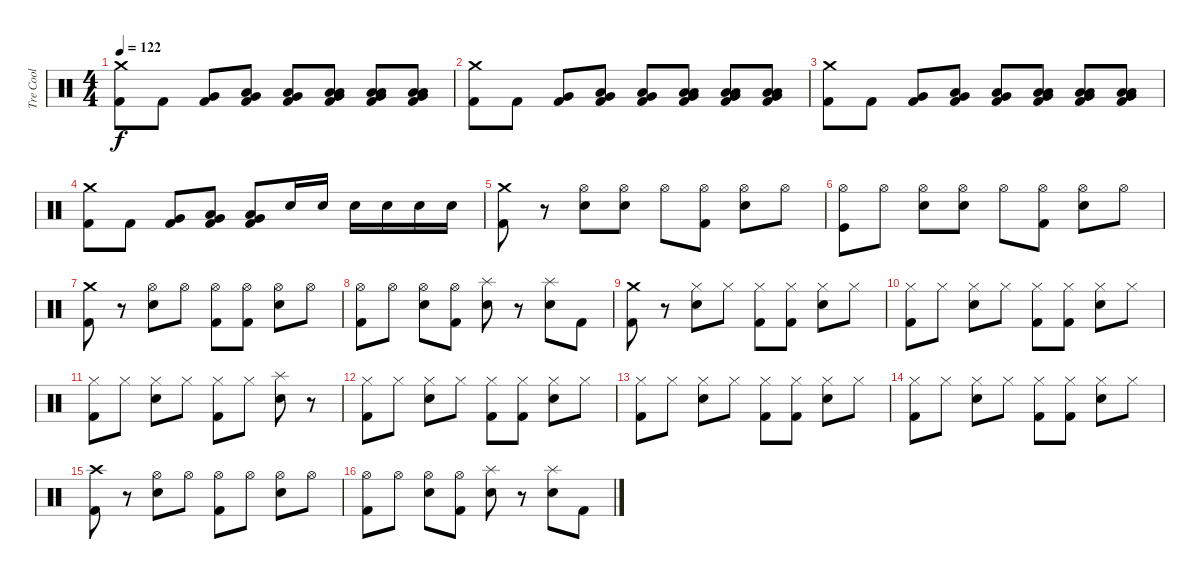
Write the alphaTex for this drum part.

\track ("Tre Cool" "Tre Cool") {instrument percussion}
\staff {score}
\articulation defaults
\ts (4 4)
\tempo 122
\clef neutral
\ks c
("Crash medium (hit)" "Kick (hit) 2").8{dy f} "Kick (hit) 2".8 ("Very Low Tom (hit)" "Kick (hit) 2").8 ("Low Tom (hit)" "Very Low Tom (hit)" "Kick (hit) 2").8 ("Low Tom (hit)" "Very Low Tom (hit)" "Kick (hit) 2").8 ("Low Floor Tom (hit)" "Very Low Tom (hit)" "Low Tom (hit)" "Kick (hit) 2").8 ("Low Floor Tom (hit)" "Very Low Tom (hit)" "Low Tom (hit)" "Kick (hit) 2").8 ("Low Floor Tom (hit)" "Very Low Tom (hit)" "Low Tom (hit)" "Kick (hit) 2").8 |
("Crash medium (hit)" "Kick (hit) 2").8 "Kick (hit) 2".8 ("Very Low Tom (hit)" "Kick (hit) 2").8 ("Low Tom (hit)" "Very Low Tom (hit)" "Kick (hit) 2").8 ("Low Tom (hit)" "Very Low Tom (hit)" "Kick (hit) 2").8 ("Low Floor Tom (hit)" "Very Low Tom (hit)" "Low Tom (hit)" "Kick (hit) 2").8 ("Low Floor Tom (hit)" "Very Low Tom (hit)" "Low Tom (hit)" "Kick (hit) 2").8 ("Low Floor Tom (hit)" "Very Low Tom (hit)" "Low Tom (hit)" "Kick (hit) 2").8 |
("Crash medium (hit)" "Kick (hit) 2").8 "Kick (hit) 2".8 ("Very Low Tom (hit)" "Kick (hit) 2").8 ("Low Tom (hit)" "Very Low Tom (hit)" "Kick (hit) 2").8 ("Low Tom (hit)" "Very Low Tom (hit)" "Kick (hit) 2").8 ("Low Floor Tom (hit)" "Very Low Tom (hit)" "Low Tom (hit)" "Kick (hit) 2").8 ("Low Floor Tom (hit)" "Very Low Tom (hit)" "Low Tom (hit)" "Kick (hit) 2").8 ("Low Floor Tom (hit)" "Very Low Tom (hit)" "Low Tom (hit)" "Kick (hit) 2").8 |
("Crash medium (hit)" "Kick (hit) 2").8 "Kick (hit) 2".8 ("Very Low Tom (hit)" "Kick (hit) 2").8 ("Low Tom (hit)" "Very Low Tom (hit)" "Kick (hit) 2").8 ("Low Tom (hit)" "Very Low Tom (hit)" "Kick (hit) 2").8 "Electric Snare (hit)".16 "Electric Snare (hit)".16 "Electric Snare (hit)".16 "Electric Snare (hit)".16 "Electric Snare (hit)".16 "Electric Snare (hit)".16 |
("Kick (hit) 2" "Crash medium (hit)").8 r.8 ("Hi-Hat (open)" "Electric Snare (hit)").8 ("Hi-Hat (open)" "Electric Snare (hit)").8 "Hi-Hat (open)".8 ("Hi-Hat (open)" "Kick (hit) 2").8 ("Hi-Hat (open)" "Electric Snare (hit)").8 "Hi-Hat (open)".8 |
("Hi-Hat (open)" "Kick (hit)").8 "Hi-Hat (open)".8 ("Hi-Hat (open)" "Electric Snare (hit)").8 ("Hi-Hat (open)" "Electric Snare (hit)").8 "Hi-Hat (open)".8 ("Hi-Hat (open)" "Kick (hit) 2").8 ("Hi-Hat (open)" "Electric Snare (hit)").8 "Hi-Hat (open)".8 |
("Crash medium (hit)" "Kick (hit) 2").8 r.8 ("Hi-Hat (open)" "Electric Snare (hit)").8 "Hi-Hat (open)".8 ("Hi-Hat (open)" "Kick (hit) 2").8 ("Hi-Hat (open)" "Kick (hit) 2").8 ("Hi-Hat (open)" "Electric Snare (hit)").8 "Hi-Hat (open)".8 |
("Hi-Hat (open)" "Kick (hit) 2").8 "Hi-Hat (open)".8 ("Hi-Hat (open)" "Electric Snare (hit)").8 ("Hi-Hat (open)" "Kick (hit) 2").8 ("Splash (hit)" "Electric Snare (hit)").8 r.8 ("Splash (hit)" "Electric Snare (hit)").8 "Kick (hit) 2".8 |
("Kick (hit) 2" "Crash medium (hit)").8 r.8 ("Hi-Hat (closed)" "Electric Snare (hit)").8 "Hi-Hat (closed)".8 ("Hi-Hat (closed)" "Kick (hit) 2").8 ("Kick (hit) 2" "Hi-Hat (closed)").8 ("Hi-Hat (closed)" "Electric Snare (hit)").8 "Hi-Hat (closed)".8 |
("Kick (hit) 2" "Hi-Hat (closed)").8 "Hi-Hat (closed)".8 ("Hi-Hat (closed)" "Electric Snare (hit)").8 "Hi-Hat (closed)".8 ("Kick (hit) 2" "Hi-Hat (closed)").8 ("Hi-Hat (closed)" "Kick (hit) 2").8 ("Hi-Hat (closed)" "Electric Snare (hit)").8 "Hi-Hat (closed)".8 |
("Hi-Hat (closed)" "Kick (hit) 2").8 "Hi-Hat (closed)".8 ("Hi-Hat (closed)" "Electric Snare (hit)").8 "Hi-Hat (closed)".8 ("Hi-Hat (closed)" "Kick (hit) 2").8 "Hi-Hat (closed)".8 ("Splash (hit)" "Electric Snare (hit)").8 r.8 |
("Hi-Hat (closed)" "Kick (hit) 2").8 "Hi-Hat (closed)".8 ("Hi-Hat (closed)" "Electric Snare (hit)").8 "Hi-Hat (closed)".8 ("Hi-Hat (closed)" "Kick (hit) 2").8 ("Hi-Hat (closed)" "Kick (hit) 2").8 ("Hi-Hat (closed)" "Electric Snare (hit)").8 "Hi-Hat (closed)".8 |
("Hi-Hat (closed)" "Kick (hit) 2").8 "Hi-Hat (closed)".8 ("Hi-Hat (closed)" "Electric Snare (hit)").8 "Hi-Hat (closed)".8 ("Hi-Hat (closed)" "Kick (hit) 2").8 ("Kick (hit) 2" "Hi-Hat (closed)").8 ("Hi-Hat (closed)" "Electric Snare (hit)").8 "Hi-Hat (closed)".8 |
("Kick (hit) 2" "Hi-Hat (closed)").8 "Hi-Hat (closed)".8 ("Hi-Hat (closed)" "Electric Snare (hit)").8 "Hi-Hat (closed)".8 ("Kick (hit) 2" "Hi-Hat (closed)").8 ("Hi-Hat (closed)" "Kick (hit) 2").8 ("Hi-Hat (closed)" "Electric Snare (hit)").8 "Hi-Hat (closed)".8 |
("Crash high (hit)" "Kick (hit) 2").8 r.8 ("Electric Snare (hit)" "Hi-Hat (open)").8 "Hi-Hat (open)".8 ("Kick (hit) 2" "Hi-Hat (open)").8 "Hi-Hat (open)".8 ("Hi-Hat (open)" "Electric Snare (hit)").8 "Hi-Hat (open)".8 |
("Kick (hit) 2" "Hi-Hat (open)").8 "Hi-Hat (open)".8 ("Electric Snare (hit)" "Hi-Hat (open)").8 ("Hi-Hat (open)" "Kick (hit) 2").8 ("Splash (hit)" "Electric Snare (hit)").8 r.8 ("Splash (hit)" "Electric Snare (hit)").8 "Kick (hit) 2".8
